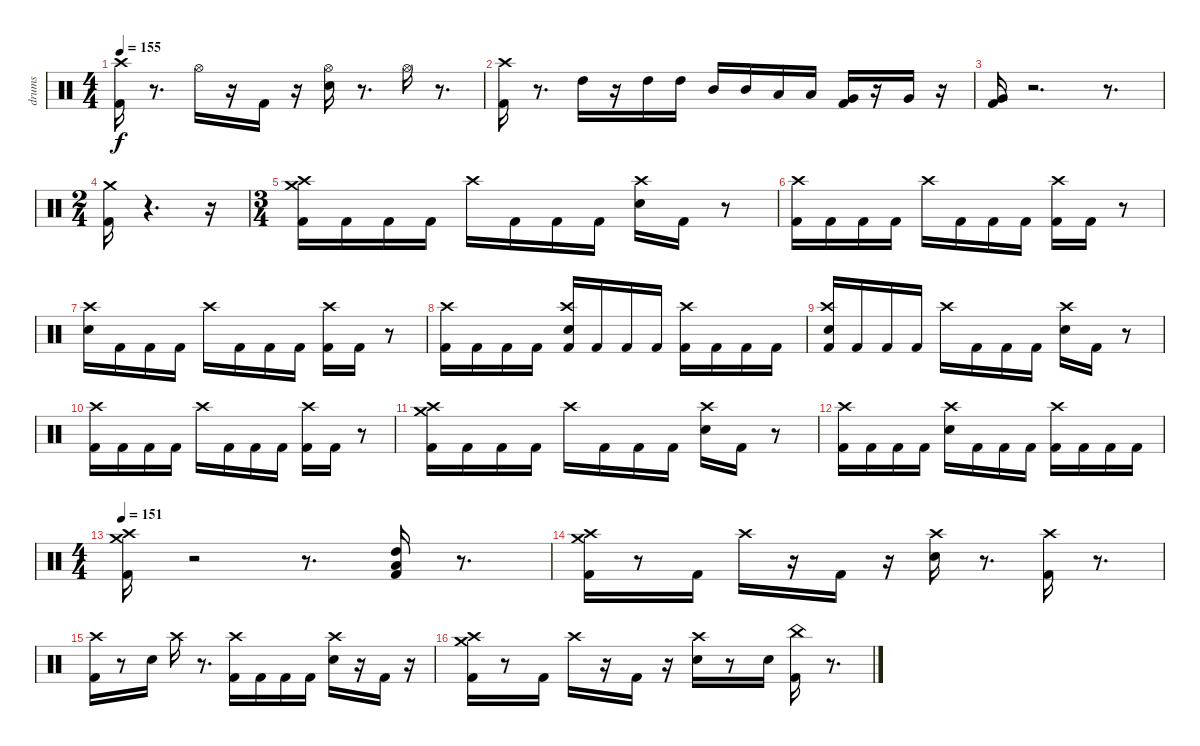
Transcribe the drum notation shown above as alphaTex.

\track ("drums" "drums") {instrument percussion}
\staff {score}
\articulation defaults
\ts (4 4)
\tempo 155
\clef neutral
\ks c
("Kick (hit) 2" "Crash high (hit)").16{dy f} r.8{d} "Hi-Hat (open)".16 r.16 "Kick (hit) 2".16 r.16 ("Snare (hit) 2" "Hi-Hat (open)").16 r.8{d} "Hi-Hat (open)".16 r.8{d} |
("Kick (hit) 2" "Crash high (hit)").16 r.8{d} "High Tom (hit)".16 r.16 "High Tom (hit)".16 "High Tom (hit)".16 "Mid Tom (hit)".16 "Mid Tom (hit)".16 "Low Tom (hit)".16 "Low Tom (hit)".16 ("Kick (hit) 2" "Very Low Tom (hit)").16 r.16 "Very Low Tom (hit)".16 r.16 |
("Kick (hit) 2" "Very Low Tom (hit)").16 r.2{d} r.8{d} |
\ts (2 4)
("Kick (hit) 2" "Crash medium (hit)").16 r.4{d} r.16 |
\ts (3 4)
("Kick (hit) 2" "Crash high (hit)" "Crash medium (hit)").16 "Kick (hit) 2".16 "Kick (hit) 2".16 "Kick (hit) 2".16 "Crash high (hit)".16 "Kick (hit) 2".16 "Kick (hit) 2".16 "Kick (hit) 2".16 ("Snare (hit) 2" "Crash high (hit)").16 "Kick (hit) 2".16 r.8 |
("Kick (hit) 2" "Crash high (hit)").16 "Kick (hit) 2".16 "Kick (hit) 2".16 "Kick (hit) 2".16 "Crash high (hit)".16 "Kick (hit) 2".16 "Kick (hit) 2".16 "Kick (hit) 2".16 ("Kick (hit) 2" "Crash high (hit)").16 "Kick (hit) 2".16 r.8 |
("Snare (hit) 2" "Crash high (hit)").16 "Kick (hit) 2".16 "Kick (hit) 2".16 "Kick (hit) 2".16 "Crash high (hit)".16 "Kick (hit) 2".16 "Kick (hit) 2".16 "Kick (hit) 2".16 ("Kick (hit) 2" "Crash high (hit)").16 "Kick (hit) 2".16 r.8 |
("Kick (hit) 2" "Crash high (hit)").16 "Kick (hit) 2".16 "Kick (hit) 2".16 "Kick (hit) 2".16 ("Kick (hit) 2" "Snare (hit) 2" "Crash high (hit)").16 "Kick (hit) 2".16 "Kick (hit) 2".16 "Kick (hit) 2".16 ("Kick (hit) 2" "Crash high (hit)").16 "Kick (hit) 2".16 "Kick (hit) 2".16 "Kick (hit) 2".16 |
("Kick (hit) 2" "Snare (hit) 2" "Crash high (hit)").16 "Kick (hit) 2".16 "Kick (hit) 2".16 "Kick (hit) 2".16 "Crash high (hit)".16 "Kick (hit) 2".16 "Kick (hit) 2".16 "Kick (hit) 2".16 ("Snare (hit) 2" "Crash high (hit)").16 "Kick (hit) 2".16 r.8 |
("Kick (hit) 2" "Crash high (hit)").16 "Kick (hit) 2".16 "Kick (hit) 2".16 "Kick (hit) 2".16 "Crash high (hit)".16 "Kick (hit) 2".16 "Kick (hit) 2".16 "Kick (hit) 2".16 ("Kick (hit) 2" "Crash high (hit)").16 "Kick (hit) 2".16 r.8 |
("Kick (hit) 2" "Crash high (hit)" "Crash medium (hit)").16 "Kick (hit) 2".16 "Kick (hit) 2".16 "Kick (hit) 2".16 "Crash high (hit)".16 "Kick (hit) 2".16 "Kick (hit) 2".16 "Kick (hit) 2".16 ("Snare (hit) 2" "Crash high (hit)").16 "Kick (hit) 2".16 r.8 |
("Kick (hit) 2" "Crash high (hit)").16 "Kick (hit) 2".16 "Kick (hit) 2".16 "Kick (hit) 2".16 ("Snare (hit) 2" "Crash high (hit)").16 "Kick (hit) 2".16 "Kick (hit) 2".16 "Kick (hit) 2".16 ("Kick (hit) 2" "Crash high (hit)").16 "Kick (hit) 2".16 "Kick (hit) 2".16 "Kick (hit) 2".16 |
\ts (4 4)
\tempo 151
("Kick (hit) 2" "Crash high (hit)" "Crash medium (hit)").16 r.2 r.8{d} ("Kick (hit) 2" "Low Tom (hit)" "High Tom (hit)").16 r.8{d} |
("Kick (hit) 2" "Crash high (hit)" "Crash medium (hit)").16 r.8 "Kick (hit) 2".16 "Crash high (hit)".16 r.16 "Kick (hit) 2".16 r.16 ("Snare (hit) 2" "Crash high (hit)").16 r.8{d} ("Kick (hit) 2" "Crash high (hit)").16 r.8{d} |
("Kick (hit) 2" "Crash high (hit)").16 r.8 "Snare (hit) 2".16 "Crash high (hit)".16 r.8{d} ("Kick (hit) 2" "Crash high (hit)").16 "Kick (hit) 2".16 "Kick (hit) 2".16 "Kick (hit) 2".16 ("Snare (hit) 2" "Crash high (hit)").16 r.16 "Kick (hit) 2".16 r.16 |
("Kick (hit) 2" "Crash high (hit)" "Crash medium (hit)").16 r.8 "Kick (hit) 2".16 "Crash high (hit)".16 r.16 "Kick (hit) 2".16 r.16 ("Snare (hit) 2" "Crash high (hit)").16 r.8 "Snare (hit) 2".16 ("Kick (hit) 2" "China (hit)").16 r.8{d}
